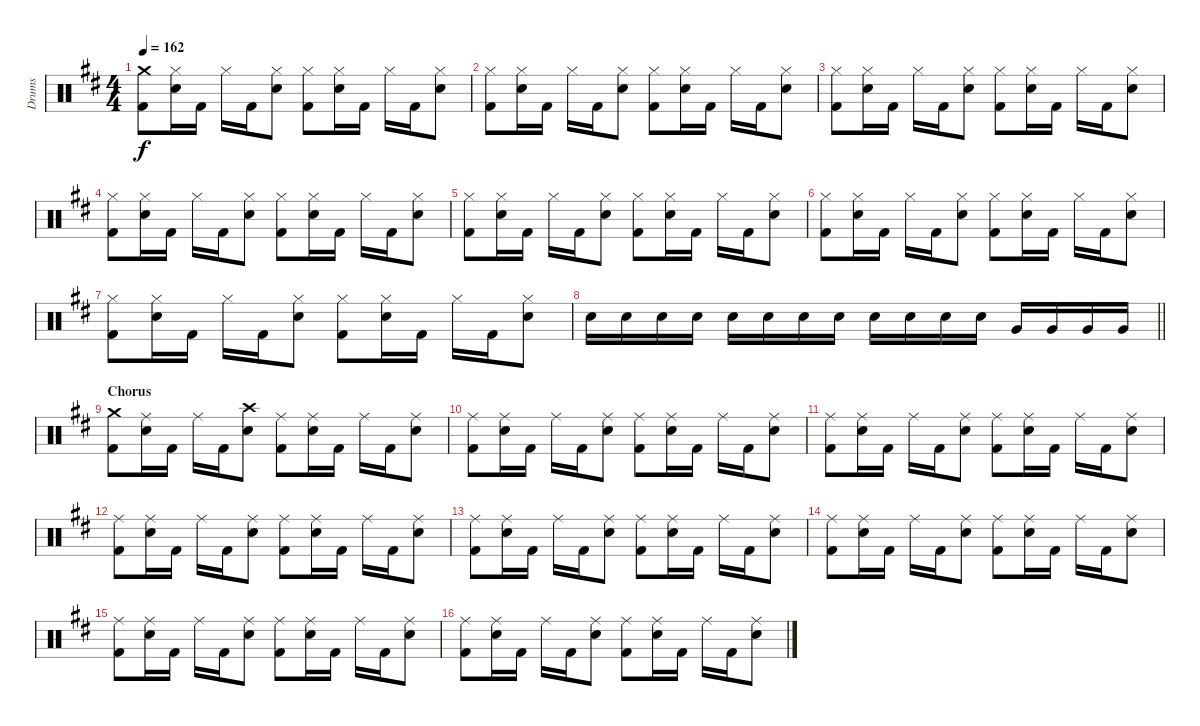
\track ("Drums" "Drums") {instrument percussion}
\staff {score}
\articulation defaults
\ts (4 4)
\tempo 162
\clef neutral
\ks d
("Crash medium (hit)" "Kick (hit) 2").8{dy f} ("Hi-Hat (closed)" "Snare (hit) 2").16 "Kick (hit) 2".16 "Hi-Hat (closed)".16 "Kick (hit) 2".16 ("Hi-Hat (closed)" "Snare (hit) 2").8 ("Hi-Hat (closed)" "Kick (hit) 2").8 ("Hi-Hat (closed)" "Snare (hit) 2").16 "Kick (hit) 2".16 "Hi-Hat (closed)".16 "Kick (hit) 2".16 ("Hi-Hat (closed)" "Snare (hit) 2").8 |
("Hi-Hat (closed)" "Kick (hit) 2").8 ("Hi-Hat (closed)" "Snare (hit) 2").16 "Kick (hit) 2".16 "Hi-Hat (closed)".16 "Kick (hit) 2".16 ("Hi-Hat (closed)" "Snare (hit) 2").8 ("Hi-Hat (closed)" "Kick (hit) 2").8 ("Hi-Hat (closed)" "Snare (hit) 2").16 "Kick (hit) 2".16 "Hi-Hat (closed)".16 "Kick (hit) 2".16 ("Hi-Hat (closed)" "Snare (hit) 2").8 |
("Hi-Hat (closed)" "Kick (hit) 2").8 ("Hi-Hat (closed)" "Snare (hit) 2").16 "Kick (hit) 2".16 "Hi-Hat (closed)".16 "Kick (hit) 2".16 ("Hi-Hat (closed)" "Snare (hit) 2").8 ("Hi-Hat (closed)" "Kick (hit) 2").8 ("Hi-Hat (closed)" "Snare (hit) 2").16 "Kick (hit) 2".16 "Hi-Hat (closed)".16 "Kick (hit) 2".16 ("Hi-Hat (closed)" "Snare (hit) 2").8 |
("Hi-Hat (closed)" "Kick (hit) 2").8 ("Hi-Hat (closed)" "Snare (hit) 2").16 "Kick (hit) 2".16 "Hi-Hat (closed)".16 "Kick (hit) 2".16 ("Hi-Hat (closed)" "Snare (hit) 2").8 ("Hi-Hat (closed)" "Kick (hit) 2").8 ("Hi-Hat (closed)" "Snare (hit) 2").16 "Kick (hit) 2".16 "Hi-Hat (closed)".16 "Kick (hit) 2".16 ("Hi-Hat (closed)" "Snare (hit) 2").8 |
("Hi-Hat (closed)" "Kick (hit) 2").8 ("Hi-Hat (closed)" "Snare (hit) 2").16 "Kick (hit) 2".16 "Hi-Hat (closed)".16 "Kick (hit) 2".16 ("Hi-Hat (closed)" "Snare (hit) 2").8 ("Hi-Hat (closed)" "Kick (hit) 2").8 ("Hi-Hat (closed)" "Snare (hit) 2").16 "Kick (hit) 2".16 "Hi-Hat (closed)".16 "Kick (hit) 2".16 ("Hi-Hat (closed)" "Snare (hit) 2").8 |
("Hi-Hat (closed)" "Kick (hit) 2").8 ("Hi-Hat (closed)" "Snare (hit) 2").16 "Kick (hit) 2".16 "Hi-Hat (closed)".16 "Kick (hit) 2".16 ("Hi-Hat (closed)" "Snare (hit) 2").8 ("Hi-Hat (closed)" "Kick (hit) 2").8 ("Hi-Hat (closed)" "Snare (hit) 2").16 "Kick (hit) 2".16 "Hi-Hat (closed)".16 "Kick (hit) 2".16 ("Hi-Hat (closed)" "Snare (hit) 2").8 |
("Hi-Hat (closed)" "Kick (hit) 2").8 ("Hi-Hat (closed)" "Snare (hit) 2").16 "Kick (hit) 2".16 "Hi-Hat (closed)".16 "Kick (hit) 2".16 ("Hi-Hat (closed)" "Snare (hit) 2").8 ("Hi-Hat (closed)" "Kick (hit) 2").8 ("Hi-Hat (closed)" "Snare (hit) 2").16 "Kick (hit) 2".16 "Hi-Hat (closed)".16 "Kick (hit) 2".16 ("Hi-Hat (closed)" "Snare (hit) 2").8 |
\barLineRight lightlight "Snare (hit) 2".16 "Snare (hit) 2".16 "Snare (hit) 2".16 "Snare (hit) 2".16 "Snare (hit) 2".16 "Snare (hit) 2".16 "Snare (hit) 2".16 "Snare (hit) 2".16 "Snare (hit) 2".16 "Snare (hit) 2".16 "Snare (hit) 2".16 "Snare (hit) 2".16 "Very Low Tom (hit)".16 "Very Low Tom (hit)".16 "Very Low Tom (hit)".16 "Very Low Tom (hit)".16
|
\section ("" "Chorus")
("Crash medium (hit)" "Kick (hit) 2").8 ("Ride (middle)" "Snare (hit) 2").16 "Kick (hit) 2".16 "Ride (middle)".16 "Kick (hit) 2".16 ("Crash high (hit)" "Snare (hit) 2").8 ("Ride (middle)" "Kick (hit) 2").8 ("Ride (middle)" "Snare (hit) 2").16 "Kick (hit) 2".16 "Ride (middle)".16 "Kick (hit) 2".16 ("Ride (middle)" "Snare (hit) 2").8 |
("Ride (middle)" "Kick (hit) 2").8 ("Ride (middle)" "Snare (hit) 2").16 "Kick (hit) 2".16 "Ride (middle)".16 "Kick (hit) 2".16 ("Ride (middle)" "Snare (hit) 2").8 ("Ride (middle)" "Kick (hit) 2").8 ("Ride (middle)" "Snare (hit) 2").16 "Kick (hit) 2".16 "Ride (middle)".16 "Kick (hit) 2".16 ("Ride (middle)" "Snare (hit) 2").8 |
("Ride (middle)" "Kick (hit) 2").8 ("Ride (middle)" "Snare (hit) 2").16 "Kick (hit) 2".16 "Ride (middle)".16 "Kick (hit) 2".16 ("Ride (middle)" "Snare (hit) 2").8 ("Ride (middle)" "Kick (hit) 2").8 ("Ride (middle)" "Snare (hit) 2").16 "Kick (hit) 2".16 "Ride (middle)".16 "Kick (hit) 2".16 ("Ride (middle)" "Snare (hit) 2").8 |
("Ride (middle)" "Kick (hit) 2").8 ("Ride (middle)" "Snare (hit) 2").16 "Kick (hit) 2".16 "Ride (middle)".16 "Kick (hit) 2".16 ("Ride (middle)" "Snare (hit) 2").8 ("Ride (middle)" "Kick (hit) 2").8 ("Ride (middle)" "Snare (hit) 2").16 "Kick (hit) 2".16 "Ride (middle)".16 "Kick (hit) 2".16 ("Ride (middle)" "Snare (hit) 2").8 |
("Ride (middle)" "Kick (hit) 2").8 ("Ride (middle)" "Snare (hit) 2").16 "Kick (hit) 2".16 "Ride (middle)".16 "Kick (hit) 2".16 ("Ride (middle)" "Snare (hit) 2").8 ("Ride (middle)" "Kick (hit) 2").8 ("Ride (middle)" "Snare (hit) 2").16 "Kick (hit) 2".16 "Ride (middle)".16 "Kick (hit) 2".16 ("Ride (middle)" "Snare (hit) 2").8 |
("Ride (middle)" "Kick (hit) 2").8 ("Ride (middle)" "Snare (hit) 2").16 "Kick (hit) 2".16 "Ride (middle)".16 "Kick (hit) 2".16 ("Ride (middle)" "Snare (hit) 2").8 ("Ride (middle)" "Kick (hit) 2").8 ("Ride (middle)" "Snare (hit) 2").16 "Kick (hit) 2".16 "Ride (middle)".16 "Kick (hit) 2".16 ("Ride (middle)" "Snare (hit) 2").8 |
("Ride (middle)" "Kick (hit) 2").8 ("Ride (middle)" "Snare (hit) 2").16 "Kick (hit) 2".16 "Ride (middle)".16 "Kick (hit) 2".16 ("Ride (middle)" "Snare (hit) 2").8 ("Ride (middle)" "Kick (hit) 2").8 ("Ride (middle)" "Snare (hit) 2").16 "Kick (hit) 2".16 "Ride (middle)".16 "Kick (hit) 2".16 ("Ride (middle)" "Snare (hit) 2").8 |
("Ride (middle)" "Kick (hit) 2").8 ("Ride (middle)" "Snare (hit) 2").16 "Kick (hit) 2".16 "Ride (middle)".16 "Kick (hit) 2".16 ("Ride (middle)" "Snare (hit) 2").8 ("Ride (middle)" "Kick (hit) 2").8 ("Ride (middle)" "Snare (hit) 2").16 "Kick (hit) 2".16 "Ride (middle)".16 "Kick (hit) 2".16 ("Ride (middle)" "Snare (hit) 2").8
